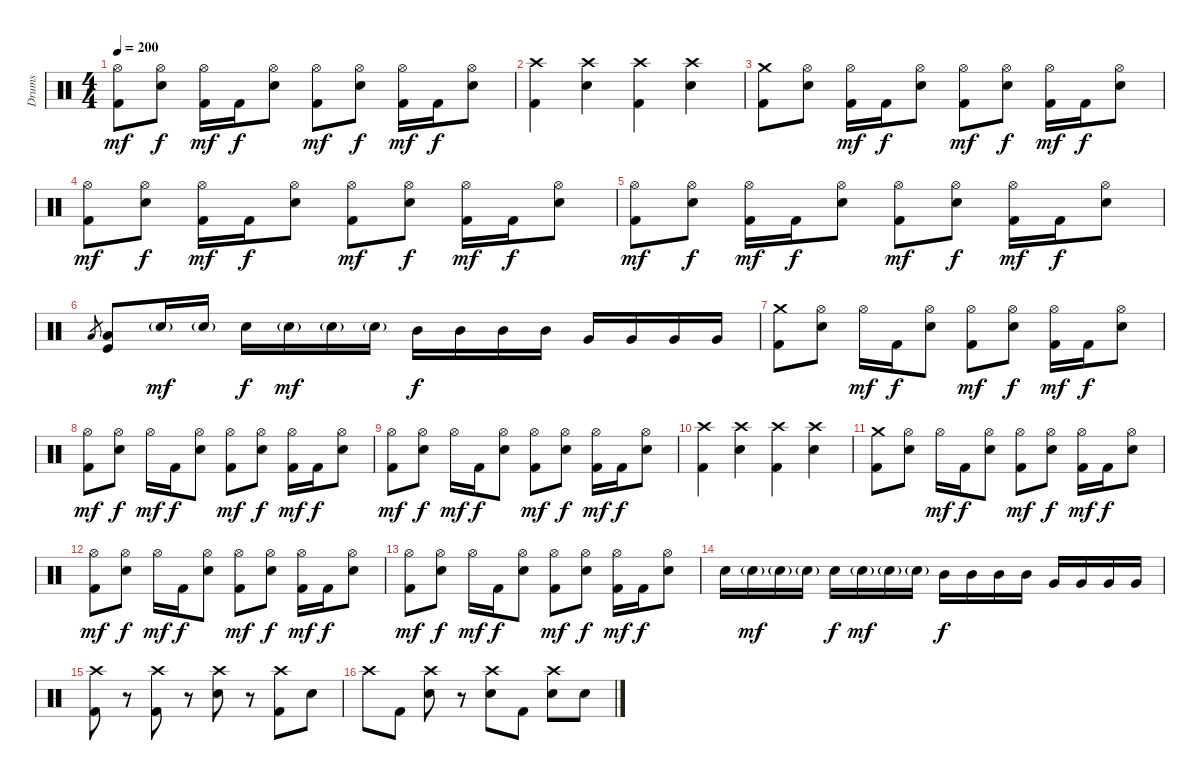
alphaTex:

\track ("Drums" "Drums") {instrument percussion}
\staff {score}
\articulation defaults
\ts (4 4)
\tempo 200
\clef neutral
\ks c
("Hi-Hat (open)" "Kick (hit) 2").8{dy mf} ("Hi-Hat (open)" "Electric Snare (hit)").8{dy f} ("Hi-Hat (open)" "Kick (hit) 2").16{dy mf} "Kick (hit) 2".16{dy f} ("Hi-Hat (open)" "Electric Snare (hit)").8 ("Hi-Hat (open)" "Kick (hit) 2").8{dy mf} ("Hi-Hat (open)" "Electric Snare (hit)").8{dy f} ("Hi-Hat (open)" "Kick (hit) 2").16{dy mf} "Kick (hit) 2".16{dy f} ("Hi-Hat (open)" "Electric Snare (hit)").8 |
("Crash high (hit)" "Kick (hit) 2").4 ("Crash high (hit)" "Electric Snare (hit)").4 ("Crash high (hit)" "Kick (hit) 2").4 ("Crash high (hit)" "Electric Snare (hit)").4 |
("Crash medium (hit)" "Kick (hit) 2").8 ("Hi-Hat (open)" "Electric Snare (hit)").8 ("Hi-Hat (open)" "Kick (hit) 2").16{dy mf} "Kick (hit) 2".16{dy f} ("Hi-Hat (open)" "Electric Snare (hit)").8 ("Hi-Hat (open)" "Kick (hit) 2").8{dy mf} ("Hi-Hat (open)" "Electric Snare (hit)").8{dy f} ("Hi-Hat (open)" "Kick (hit) 2").16{dy mf} "Kick (hit) 2".16{dy f} ("Hi-Hat (open)" "Electric Snare (hit)").8 |
("Hi-Hat (open)" "Kick (hit) 2").8{dy mf} ("Hi-Hat (open)" "Electric Snare (hit)").8{dy f} ("Hi-Hat (open)" "Kick (hit) 2").16{dy mf} "Kick (hit) 2".16{dy f} ("Hi-Hat (open)" "Electric Snare (hit)").8 ("Hi-Hat (open)" "Kick (hit) 2").8{dy mf} ("Hi-Hat (open)" "Electric Snare (hit)").8{dy f} ("Hi-Hat (open)" "Kick (hit) 2").16{dy mf} "Kick (hit) 2".16{dy f} ("Hi-Hat (open)" "Electric Snare (hit)").8 |
("Hi-Hat (open)" "Kick (hit) 2").8{dy mf} ("Hi-Hat (open)" "Electric Snare (hit)").8{dy f} ("Hi-Hat (open)" "Kick (hit) 2").16{dy mf} "Kick (hit) 2".16{dy f} ("Hi-Hat (open)" "Electric Snare (hit)").8 ("Hi-Hat (open)" "Kick (hit) 2").8{dy mf} ("Hi-Hat (open)" "Electric Snare (hit)").8{dy f} ("Hi-Hat (open)" "Kick (hit) 2").16{dy mf} "Kick (hit) 2".16{dy f} ("Hi-Hat (open)" "Electric Snare (hit)").8 |
"Low Tom (hit)".8{gr} ("Low Tom (hit)" "Kick (hit)").8 "Electric Snare (hit)"{g}.16{dy mf} "Electric Snare (hit)"{g}.16 "Electric Snare (hit)".16{dy f} "Electric Snare (hit)"{g}.16{dy mf} "Electric Snare (hit)"{g}.16 "Electric Snare (hit)"{g}.16 "Mid Tom (hit)".16{dy f} "Mid Tom (hit)".16 "Mid Tom (hit)".16 "Mid Tom (hit)".16 "Very Low Tom (hit)".16 "Very Low Tom (hit)".16 "Very Low Tom (hit)".16 "Very Low Tom (hit)".16 |
("Crash medium (hit)" "Kick (hit) 2").8 ("Hi-Hat (open)" "Electric Snare (hit)").8 "Hi-Hat (open)".16{dy mf} "Kick (hit) 2".16{dy f} ("Hi-Hat (open)" "Electric Snare (hit)").8 ("Hi-Hat (open)" "Kick (hit) 2").8{dy mf} ("Hi-Hat (open)" "Electric Snare (hit)").8{dy f} ("Hi-Hat (open)" "Kick (hit) 2").16{dy mf} "Kick (hit) 2".16{dy f} ("Hi-Hat (open)" "Electric Snare (hit)").8 |
("Hi-Hat (open)" "Kick (hit) 2").8{dy mf} ("Hi-Hat (open)" "Electric Snare (hit)").8{dy f} "Hi-Hat (open)".16{dy mf} "Kick (hit) 2".16{dy f} ("Hi-Hat (open)" "Electric Snare (hit)").8 ("Hi-Hat (open)" "Kick (hit) 2").8{dy mf} ("Hi-Hat (open)" "Electric Snare (hit)").8{dy f} ("Hi-Hat (open)" "Kick (hit) 2").16{dy mf} "Kick (hit) 2".16{dy f} ("Hi-Hat (open)" "Electric Snare (hit)").8 |
("Hi-Hat (open)" "Kick (hit) 2").8{dy mf} ("Hi-Hat (open)" "Electric Snare (hit)").8{dy f} "Hi-Hat (open)".16{dy mf} "Kick (hit) 2".16{dy f} ("Hi-Hat (open)" "Electric Snare (hit)").8 ("Hi-Hat (open)" "Kick (hit) 2").8{dy mf} ("Hi-Hat (open)" "Electric Snare (hit)").8{dy f} ("Hi-Hat (open)" "Kick (hit) 2").16{dy mf} "Kick (hit) 2".16{dy f} ("Hi-Hat (open)" "Electric Snare (hit)").8 |
("Crash high (hit)" "Kick (hit) 2").4 ("Crash high (hit)" "Electric Snare (hit)").4 ("Crash high (hit)" "Kick (hit) 2").4 ("Crash high (hit)" "Electric Snare (hit)").4 |
("Crash medium (hit)" "Kick (hit) 2").8 ("Hi-Hat (open)" "Electric Snare (hit)").8 "Hi-Hat (open)".16{dy mf} "Kick (hit) 2".16{dy f} ("Hi-Hat (open)" "Electric Snare (hit)").8 ("Hi-Hat (open)" "Kick (hit) 2").8{dy mf} ("Hi-Hat (open)" "Electric Snare (hit)").8{dy f} ("Hi-Hat (open)" "Kick (hit) 2").16{dy mf} "Kick (hit) 2".16{dy f} ("Hi-Hat (open)" "Electric Snare (hit)").8 |
("Hi-Hat (open)" "Kick (hit) 2").8{dy mf} ("Hi-Hat (open)" "Electric Snare (hit)").8{dy f} "Hi-Hat (open)".16{dy mf} "Kick (hit) 2".16{dy f} ("Hi-Hat (open)" "Electric Snare (hit)").8 ("Hi-Hat (open)" "Kick (hit) 2").8{dy mf} ("Hi-Hat (open)" "Electric Snare (hit)").8{dy f} ("Hi-Hat (open)" "Kick (hit) 2").16{dy mf} "Kick (hit) 2".16{dy f} ("Hi-Hat (open)" "Electric Snare (hit)").8 |
("Hi-Hat (open)" "Kick (hit) 2").8{dy mf} ("Hi-Hat (open)" "Electric Snare (hit)").8{dy f} "Hi-Hat (open)".16{dy mf} "Kick (hit) 2".16{dy f} ("Hi-Hat (open)" "Electric Snare (hit)").8 ("Hi-Hat (open)" "Kick (hit) 2").8{dy mf} ("Hi-Hat (open)" "Electric Snare (hit)").8{dy f} ("Hi-Hat (open)" "Kick (hit) 2").16{dy mf} "Kick (hit) 2".16{dy f} ("Hi-Hat (open)" "Electric Snare (hit)").8 |
"Electric Snare (hit)".16 "Electric Snare (hit)"{g}.16{dy mf} "Electric Snare (hit)"{g}.16 "Electric Snare (hit)"{g}.16 "Electric Snare (hit)".16{dy f} "Electric Snare (hit)"{g}.16{dy mf} "Electric Snare (hit)"{g}.16 "Electric Snare (hit)"{g}.16 "Mid Tom (hit)".16{dy f} "Mid Tom (hit)".16 "Mid Tom (hit)".16 "Mid Tom (hit)".16 "Very Low Tom (hit)".16 "Very Low Tom (hit)".16 "Very Low Tom (hit)".16 "Very Low Tom (hit)".16 |
("Crash high (hit)" "Kick (hit) 2").8 r.8 ("Crash high (hit)" "Kick (hit) 2").8 r.8 ("Crash high (hit)" "Electric Snare (hit)").8 r.8 ("Crash high (hit)" "Kick (hit) 2").8 "Electric Snare (hit)".8 |
"Crash high (hit)".8 "Kick (hit) 2".8 ("Crash high (hit)" "Electric Snare (hit)").8 r.8 ("Crash high (hit)" "Electric Snare (hit)").8 "Kick (hit) 2".8 ("Crash high (hit)" "Electric Snare (hit)").8 "Electric Snare (hit)".8
